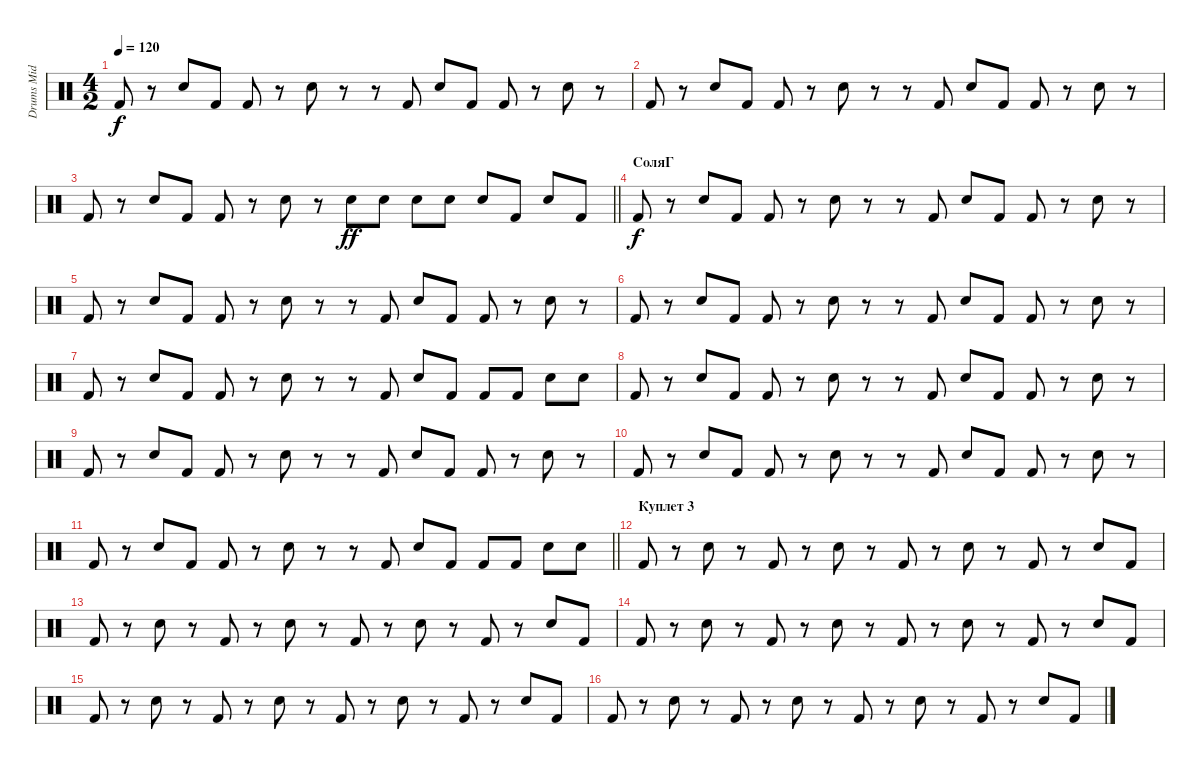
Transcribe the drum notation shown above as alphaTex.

\track ("Drums Mid" "Drums Mid") {instrument percussion}
\staff {score}
\articulation defaults
\ts (4 2)
\tempo 120
\clef neutral
\ks c "Kick (hit) 2".8{dy f}
r.8 "Snare (hit) 2".8 "Kick (hit) 2".8 "Kick (hit) 2".8 r.8 "Snare (hit) 2".8 r.8 r.8 "Kick (hit) 2".8 "Snare (hit) 2".8 "Kick (hit) 2".8 "Kick (hit) 2".8 r.8 "Snare (hit) 2".8 r.8 |
"Kick (hit) 2".8 r.8 "Snare (hit) 2".8 "Kick (hit) 2".8 "Kick (hit) 2".8 r.8 "Snare (hit) 2".8 r.8 r.8 "Kick (hit) 2".8 "Snare (hit) 2".8 "Kick (hit) 2".8 "Kick (hit) 2".8 r.8 "Snare (hit) 2".8 r.8 |
\barLineRight lightlight "Kick (hit) 2".8
r.8 "Snare (hit) 2".8 "Kick (hit) 2".8 "Kick (hit) 2".8 r.8 "Snare (hit) 2".8 r.8 "Snare (hit) 2".8{dy ff} "Snare (hit) 2".8 "Snare (hit) 2".8 "Snare (hit) 2".8 "Snare (hit) 2".8 "Kick (hit) 2".8 "Snare (hit) 2".8 "Kick (hit) 2".8 |
\section ("" "СоляГ")
"Kick (hit) 2".8{dy f} r.8 "Snare (hit) 2".8 "Kick (hit) 2".8 "Kick (hit) 2".8 r.8 "Snare (hit) 2".8 r.8 r.8 "Kick (hit) 2".8 "Snare (hit) 2".8 "Kick (hit) 2".8 "Kick (hit) 2".8 r.8 "Snare (hit) 2".8 r.8 |
"Kick (hit) 2".8 r.8 "Snare (hit) 2".8 "Kick (hit) 2".8 "Kick (hit) 2".8 r.8 "Snare (hit) 2".8 r.8 r.8 "Kick (hit) 2".8 "Snare (hit) 2".8 "Kick (hit) 2".8 "Kick (hit) 2".8 r.8 "Snare (hit) 2".8 r.8 |
"Kick (hit) 2".8 r.8 "Snare (hit) 2".8 "Kick (hit) 2".8 "Kick (hit) 2".8 r.8 "Snare (hit) 2".8 r.8 r.8 "Kick (hit) 2".8 "Snare (hit) 2".8 "Kick (hit) 2".8 "Kick (hit) 2".8 r.8 "Snare (hit) 2".8 r.8 |
"Kick (hit) 2".8 r.8 "Snare (hit) 2".8 "Kick (hit) 2".8 "Kick (hit) 2".8 r.8 "Snare (hit) 2".8 r.8 r.8 "Kick (hit) 2".8 "Snare (hit) 2".8 "Kick (hit) 2".8 "Kick (hit) 2".8 "Kick (hit) 2".8 "Snare (hit) 2".8 "Snare (hit) 2".8 |
"Kick (hit) 2".8 r.8 "Snare (hit) 2".8 "Kick (hit) 2".8 "Kick (hit) 2".8 r.8 "Snare (hit) 2".8 r.8 r.8 "Kick (hit) 2".8 "Snare (hit) 2".8 "Kick (hit) 2".8 "Kick (hit) 2".8 r.8 "Snare (hit) 2".8 r.8 |
"Kick (hit) 2".8 r.8 "Snare (hit) 2".8 "Kick (hit) 2".8 "Kick (hit) 2".8 r.8 "Snare (hit) 2".8 r.8 r.8 "Kick (hit) 2".8 "Snare (hit) 2".8 "Kick (hit) 2".8 "Kick (hit) 2".8 r.8 "Snare (hit) 2".8 r.8 |
"Kick (hit) 2".8 r.8 "Snare (hit) 2".8 "Kick (hit) 2".8 "Kick (hit) 2".8 r.8 "Snare (hit) 2".8 r.8 r.8 "Kick (hit) 2".8 "Snare (hit) 2".8 "Kick (hit) 2".8 "Kick (hit) 2".8 r.8 "Snare (hit) 2".8 r.8 |
\barLineRight lightlight "Kick (hit) 2".8
r.8 "Snare (hit) 2".8 "Kick (hit) 2".8 "Kick (hit) 2".8 r.8 "Snare (hit) 2".8 r.8 r.8 "Kick (hit) 2".8 "Snare (hit) 2".8 "Kick (hit) 2".8 "Kick (hit) 2".8 "Kick (hit) 2".8 "Snare (hit) 2".8 "Snare (hit) 2".8 |
\section ("" "Куплет 3")
"Kick (hit) 2".8 r.8 "Snare (hit) 2".8 r.8 "Kick (hit) 2".8 r.8 "Snare (hit) 2".8 r.8 "Kick (hit) 2".8 r.8 "Snare (hit) 2".8 r.8 "Kick (hit) 2".8 r.8 "Snare (hit) 2".8 "Kick (hit) 2".8 |
"Kick (hit) 2".8 r.8 "Snare (hit) 2".8 r.8 "Kick (hit) 2".8 r.8 "Snare (hit) 2".8 r.8 "Kick (hit) 2".8 r.8 "Snare (hit) 2".8 r.8 "Kick (hit) 2".8 r.8 "Snare (hit) 2".8 "Kick (hit) 2".8 |
"Kick (hit) 2".8 r.8 "Snare (hit) 2".8 r.8 "Kick (hit) 2".8 r.8 "Snare (hit) 2".8 r.8 "Kick (hit) 2".8 r.8 "Snare (hit) 2".8 r.8 "Kick (hit) 2".8 r.8 "Snare (hit) 2".8 "Kick (hit) 2".8 |
"Kick (hit) 2".8 r.8 "Snare (hit) 2".8 r.8 "Kick (hit) 2".8 r.8 "Snare (hit) 2".8 r.8 "Kick (hit) 2".8 r.8 "Snare (hit) 2".8 r.8 "Kick (hit) 2".8 r.8 "Snare (hit) 2".8 "Kick (hit) 2".8 |
"Kick (hit) 2".8 r.8 "Snare (hit) 2".8 r.8 "Kick (hit) 2".8 r.8 "Snare (hit) 2".8 r.8 "Kick (hit) 2".8 r.8 "Snare (hit) 2".8 r.8 "Kick (hit) 2".8 r.8 "Snare (hit) 2".8 "Kick (hit) 2".8
